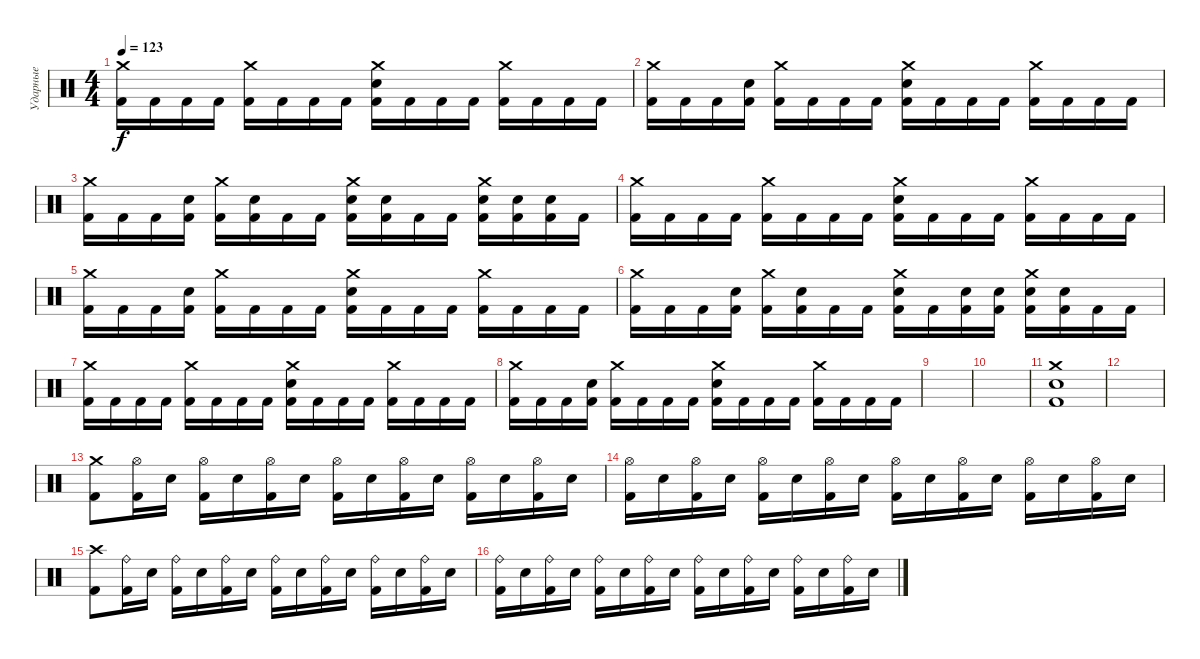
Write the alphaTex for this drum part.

\track ("Ударные" "Ударные") {instrument percussion}
\staff {score}
\articulation defaults
\ts (4 4)
\tempo 123
\clef neutral
\ks c
("Crash medium (hit)" "Kick (hit) 2").16{dy f} "Kick (hit) 2".16 "Kick (hit) 2".16 "Kick (hit) 2".16 ("Crash medium (hit)" "Kick (hit) 2").16 "Kick (hit) 2".16 "Kick (hit) 2".16 "Kick (hit) 2".16 ("Electric Snare (hit)" "Crash medium (hit)" "Kick (hit) 2").16 "Kick (hit) 2".16 "Kick (hit) 2".16 "Kick (hit) 2".16 ("Crash medium (hit)" "Kick (hit) 2").16 "Kick (hit) 2".16 "Kick (hit) 2".16 "Kick (hit) 2".16 |
("Crash medium (hit)" "Kick (hit) 2").16 "Kick (hit) 2".16 "Kick (hit) 2".16 ("Electric Snare (hit)" "Kick (hit) 2").16 ("Crash medium (hit)" "Kick (hit) 2").16 "Kick (hit) 2".16 "Kick (hit) 2".16 "Kick (hit) 2".16 ("Electric Snare (hit)" "Crash medium (hit)" "Kick (hit) 2").16 "Kick (hit) 2".16 "Kick (hit) 2".16 "Kick (hit) 2".16 ("Crash medium (hit)" "Kick (hit) 2").16 "Kick (hit) 2".16 "Kick (hit) 2".16 "Kick (hit) 2".16 |
("Crash medium (hit)" "Kick (hit) 2").16 "Kick (hit) 2".16 "Kick (hit) 2".16 ("Electric Snare (hit)" "Kick (hit) 2").16 ("Crash medium (hit)" "Kick (hit) 2").16 ("Electric Snare (hit)" "Kick (hit) 2").16 "Kick (hit) 2".16 "Kick (hit) 2".16 ("Electric Snare (hit)" "Crash medium (hit)" "Kick (hit) 2").16 ("Electric Snare (hit)" "Kick (hit) 2").16 "Kick (hit) 2".16 "Kick (hit) 2".16 ("Electric Snare (hit)" "Crash medium (hit)" "Kick (hit) 2").16 ("Electric Snare (hit)" "Kick (hit) 2").16 ("Electric Snare (hit)" "Kick (hit) 2").16 "Kick (hit) 2".16 |
("Crash medium (hit)" "Kick (hit) 2").16 "Kick (hit) 2".16 "Kick (hit) 2".16 "Kick (hit) 2".16 ("Crash medium (hit)" "Kick (hit) 2").16 "Kick (hit) 2".16 "Kick (hit) 2".16 "Kick (hit) 2".16 ("Electric Snare (hit)" "Crash medium (hit)" "Kick (hit) 2").16 "Kick (hit) 2".16 "Kick (hit) 2".16 "Kick (hit) 2".16 ("Crash medium (hit)" "Kick (hit) 2").16 "Kick (hit) 2".16 "Kick (hit) 2".16 "Kick (hit) 2".16 |
("Crash medium (hit)" "Kick (hit) 2").16 "Kick (hit) 2".16 "Kick (hit) 2".16 ("Electric Snare (hit)" "Kick (hit) 2").16 ("Crash medium (hit)" "Kick (hit) 2").16 "Kick (hit) 2".16 "Kick (hit) 2".16 "Kick (hit) 2".16 ("Electric Snare (hit)" "Crash medium (hit)" "Kick (hit) 2").16 "Kick (hit) 2".16 "Kick (hit) 2".16 "Kick (hit) 2".16 ("Crash medium (hit)" "Kick (hit) 2").16 "Kick (hit) 2".16 "Kick (hit) 2".16 "Kick (hit) 2".16 |
("Crash medium (hit)" "Kick (hit) 2").16 "Kick (hit) 2".16 "Kick (hit) 2".16 ("Electric Snare (hit)" "Kick (hit) 2").16 ("Crash medium (hit)" "Kick (hit) 2").16 ("Electric Snare (hit)" "Kick (hit) 2").16 "Kick (hit) 2".16 "Kick (hit) 2".16 ("Electric Snare (hit)" "Crash medium (hit)" "Kick (hit) 2").16 "Kick (hit) 2".16 ("Electric Snare (hit)" "Kick (hit) 2").16 ("Electric Snare (hit)" "Kick (hit) 2").16 ("Electric Snare (hit)" "Crash medium (hit)" "Kick (hit) 2").16 ("Electric Snare (hit)" "Kick (hit) 2").16 "Kick (hit) 2".16 "Kick (hit) 2".16 |
("Crash medium (hit)" "Kick (hit) 2").16 "Kick (hit) 2".16 "Kick (hit) 2".16 "Kick (hit) 2".16 ("Crash medium (hit)" "Kick (hit) 2").16 "Kick (hit) 2".16 "Kick (hit) 2".16 "Kick (hit) 2".16 ("Electric Snare (hit)" "Crash medium (hit)" "Kick (hit) 2").16 "Kick (hit) 2".16 "Kick (hit) 2".16 "Kick (hit) 2".16 ("Crash medium (hit)" "Kick (hit) 2").16 "Kick (hit) 2".16 "Kick (hit) 2".16 "Kick (hit) 2".16 |
("Crash medium (hit)" "Kick (hit) 2").16 "Kick (hit) 2".16 "Kick (hit) 2".16 ("Electric Snare (hit)" "Kick (hit) 2").16 ("Crash medium (hit)" "Kick (hit) 2").16 "Kick (hit) 2".16 "Kick (hit) 2".16 "Kick (hit) 2".16 ("Electric Snare (hit)" "Crash medium (hit)" "Kick (hit) 2").16 "Kick (hit) 2".16 "Kick (hit) 2".16 "Kick (hit) 2".16 ("Crash medium (hit)" "Kick (hit) 2").16 "Kick (hit) 2".16 "Kick (hit) 2".16 "Kick (hit) 2".16 |
|
|
("Crash medium (hit)" "Electric Snare (hit)" "Kick (hit) 2").1 |
|
("Crash medium (hit)" "Kick (hit) 2").8 ("Hi-Hat (open)" "Kick (hit) 2").16 "Electric Snare (hit)".16 ("Hi-Hat (open)" "Kick (hit) 2").16 "Electric Snare (hit)".16 ("Hi-Hat (open)" "Kick (hit) 2").16 "Electric Snare (hit)".16 ("Hi-Hat (open)" "Kick (hit) 2").16 "Electric Snare (hit)".16 ("Hi-Hat (open)" "Kick (hit) 2").16 "Electric Snare (hit)".16 ("Hi-Hat (open)" "Kick (hit) 2").16 "Electric Snare (hit)".16 ("Hi-Hat (open)" "Kick (hit) 2").16 "Electric Snare (hit)".16 |
("Hi-Hat (open)" "Kick (hit) 2").16 "Electric Snare (hit)".16 ("Hi-Hat (open)" "Kick (hit) 2").16 "Electric Snare (hit)".16 ("Hi-Hat (open)" "Kick (hit) 2").16 "Electric Snare (hit)".16 ("Hi-Hat (open)" "Kick (hit) 2").16 "Electric Snare (hit)".16 ("Hi-Hat (open)" "Kick (hit) 2").16 "Electric Snare (hit)".16 ("Hi-Hat (open)" "Kick (hit) 2").16 "Electric Snare (hit)".16 ("Hi-Hat (open)" "Kick (hit) 2").16 "Electric Snare (hit)".16 ("Hi-Hat (open)" "Kick (hit) 2").16 "Electric Snare (hit)".16 |
("Crash high (hit)" "Kick (hit) 2").8 ("Ride (bell)" "Kick (hit) 2").16 "Electric Snare (hit)".16 ("Ride (bell)" "Kick (hit) 2").16 "Electric Snare (hit)".16 ("Ride (bell)" "Kick (hit) 2").16 "Electric Snare (hit)".16 ("Ride (bell)" "Kick (hit) 2").16 "Electric Snare (hit)".16 ("Ride (bell)" "Kick (hit) 2").16 "Electric Snare (hit)".16 ("Ride (bell)" "Kick (hit) 2").16 "Electric Snare (hit)".16 ("Ride (bell)" "Kick (hit) 2").16 "Electric Snare (hit)".16 |
("Ride (bell)" "Kick (hit) 2").16 "Electric Snare (hit)".16 ("Ride (bell)" "Kick (hit) 2").16 "Electric Snare (hit)".16 ("Ride (bell)" "Kick (hit) 2").16 "Electric Snare (hit)".16 ("Ride (bell)" "Kick (hit) 2").16 "Electric Snare (hit)".16 ("Ride (bell)" "Kick (hit) 2").16 "Electric Snare (hit)".16 ("Ride (bell)" "Kick (hit) 2").16 "Electric Snare (hit)".16 ("Ride (bell)" "Kick (hit) 2").16 "Electric Snare (hit)".16 ("Ride (bell)" "Kick (hit) 2").16 "Electric Snare (hit)".16
